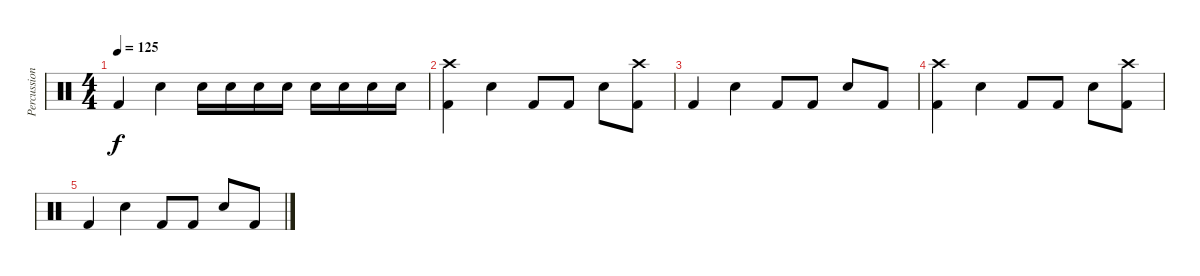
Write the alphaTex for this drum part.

\track ("Percussion" "Percussion") {instrument percussion}
\staff {score}
\articulation defaults
\ts (4 4)
\tempo 125
\clef neutral
\ks c "Kick (hit) 2".4{dy f} "Snare (hit) 2".4 "Snare (hit) 2".16 "Snare (hit) 2".16 "Snare (hit) 2".16 "Snare (hit) 2".16 "Snare (hit) 2".16 "Snare (hit) 2".16 "Snare (hit) 2".16 "Snare (hit) 2".16
|
("Crash high (hit)" "Kick (hit) 2").4 "Snare (hit) 2".4 "Kick (hit) 2".8 "Kick (hit) 2".8 "Snare (hit) 2".8 ("Crash high (hit)" "Kick (hit) 2").8 |
"Kick (hit) 2".4 "Snare (hit) 2".4 "Kick (hit) 2".8 "Kick (hit) 2".8 "Snare (hit) 2".8 "Kick (hit) 2".8 |
("Crash high (hit)" "Kick (hit) 2").4 "Snare (hit) 2".4 "Kick (hit) 2".8 "Kick (hit) 2".8 "Snare (hit) 2".8 ("Crash high (hit)" "Kick (hit) 2").8 |
"Kick (hit) 2".4 "Snare (hit) 2".4 "Kick (hit) 2".8 "Kick (hit) 2".8 "Snare (hit) 2".8 "Kick (hit) 2".8
